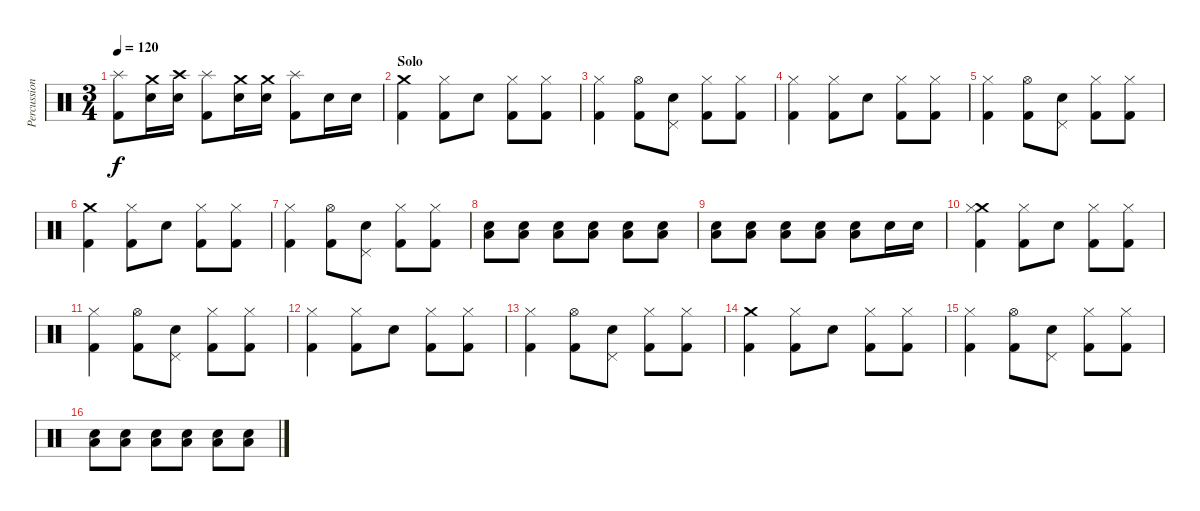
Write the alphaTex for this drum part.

\track ("Percussions" "Percussion") {instrument percussion}
\staff {score}
\articulation defaults
\ts (3 4)
\tempo 120
\clef neutral
\ks c
("Splash (hit)" "Kick (hit) 2").8{dy f} ("Crash medium (hit)" "Snare (hit) 2").16 ("Crash high (hit)" "Snare (hit) 2").16 ("Splash (hit)" "Kick (hit) 2").8 ("Crash medium (hit)" "Snare (hit) 2").16 ("Crash medium (hit)" "Snare (hit) 2").16 ("Splash (hit)" "Kick (hit) 2").8 "Snare (hit) 2".16 "Snare (hit) 2".16 |
\section ("" "Solo")
("Crash medium (hit)" "Kick (hit) 2").4 ("Hi-Hat (closed)" "Kick (hit) 2").8 "Snare (hit) 2".8 ("Hi-Hat (closed)" "Kick (hit) 2").8 ("Hi-Hat (closed)" "Kick (hit) 2").8 |
("Hi-Hat (closed)" "Kick (hit) 2").4 ("Hi-Hat (open)" "Kick (hit) 2").8 ("Pedal Hi-Hat (hit)" "Snare (hit) 2").8 ("Hi-Hat (closed)" "Kick (hit) 2").8 ("Hi-Hat (closed)" "Kick (hit) 2").8 |
("Hi-Hat (closed)" "Kick (hit) 2").4 ("Hi-Hat (closed)" "Kick (hit) 2").8 "Snare (hit) 2".8 ("Hi-Hat (closed)" "Kick (hit) 2").8 ("Hi-Hat (closed)" "Kick (hit) 2").8 |
("Hi-Hat (closed)" "Kick (hit) 2").4 ("Hi-Hat (open)" "Kick (hit) 2").8 ("Pedal Hi-Hat (hit)" "Snare (hit) 2").8 ("Hi-Hat (closed)" "Kick (hit) 2").8 ("Hi-Hat (closed)" "Kick (hit) 2").8 |
("Crash medium (hit)" "Kick (hit) 2").4 ("Hi-Hat (closed)" "Kick (hit) 2").8 "Snare (hit) 2".8 ("Hi-Hat (closed)" "Kick (hit) 2").8 ("Hi-Hat (closed)" "Kick (hit) 2").8 |
("Hi-Hat (closed)" "Kick (hit) 2").4 ("Hi-Hat (open)" "Kick (hit) 2").8 ("Pedal Hi-Hat (hit)" "Snare (hit) 2").8 ("Hi-Hat (closed)" "Kick (hit) 2").8 ("Hi-Hat (closed)" "Kick (hit) 2").8 |
("Snare (hit) 2" "Low Floor Tom (hit)").8{volume 4} ("Snare (hit) 2" "Low Floor Tom (hit)").8{volume 13} ("Snare (hit) 2" "Low Floor Tom (hit)").8 ("Snare (hit) 2" "Low Floor Tom (hit)").8 ("Snare (hit) 2" "Low Floor Tom (hit)").8 ("Snare (hit) 2" "Low Floor Tom (hit)").8 |
("Snare (hit) 2" "Low Floor Tom (hit)").8 ("Snare (hit) 2" "Low Floor Tom (hit)").8 ("Snare (hit) 2" "Low Floor Tom (hit)").8 ("Snare (hit) 2" "Low Floor Tom (hit)").8 ("Snare (hit) 2" "Low Floor Tom (hit)").8 "Snare (hit) 2".16 "Snare (hit) 2".16 |
("Crash medium (hit)" "Hi-Hat (closed)" "Kick (hit) 2").4 ("Hi-Hat (closed)" "Kick (hit) 2").8 "Snare (hit) 2".8 ("Hi-Hat (closed)" "Kick (hit) 2").8 ("Hi-Hat (closed)" "Kick (hit) 2").8 |
("Hi-Hat (closed)" "Kick (hit) 2").4 ("Hi-Hat (open)" "Kick (hit) 2").8 ("Pedal Hi-Hat (hit)" "Snare (hit) 2").8 ("Hi-Hat (closed)" "Kick (hit) 2").8 ("Hi-Hat (closed)" "Kick (hit) 2").8 |
("Hi-Hat (closed)" "Kick (hit) 2").4 ("Hi-Hat (closed)" "Kick (hit) 2").8 "Snare (hit) 2".8 ("Hi-Hat (closed)" "Kick (hit) 2").8 ("Hi-Hat (closed)" "Kick (hit) 2").8 |
("Hi-Hat (closed)" "Kick (hit) 2").4 ("Hi-Hat (open)" "Kick (hit) 2").8 ("Pedal Hi-Hat (hit)" "Snare (hit) 2").8 ("Hi-Hat (closed)" "Kick (hit) 2").8 ("Hi-Hat (closed)" "Kick (hit) 2").8 |
("Crash medium (hit)" "Kick (hit) 2").4 ("Hi-Hat (closed)" "Kick (hit) 2").8 "Snare (hit) 2".8 ("Hi-Hat (closed)" "Kick (hit) 2").8 ("Hi-Hat (closed)" "Kick (hit) 2").8 |
("Hi-Hat (closed)" "Kick (hit) 2").4 ("Hi-Hat (open)" "Kick (hit) 2").8 ("Pedal Hi-Hat (hit)" "Snare (hit) 2").8 ("Hi-Hat (closed)" "Kick (hit) 2").8 ("Hi-Hat (closed)" "Kick (hit) 2").8 |
("Snare (hit) 2" "Low Floor Tom (hit)").8{volume 4} ("Snare (hit) 2" "Low Floor Tom (hit)").8{volume 13} ("Snare (hit) 2" "Low Floor Tom (hit)").8 ("Snare (hit) 2" "Low Floor Tom (hit)").8 ("Snare (hit) 2" "Low Floor Tom (hit)").8 ("Snare (hit) 2" "Low Floor Tom (hit)").8
